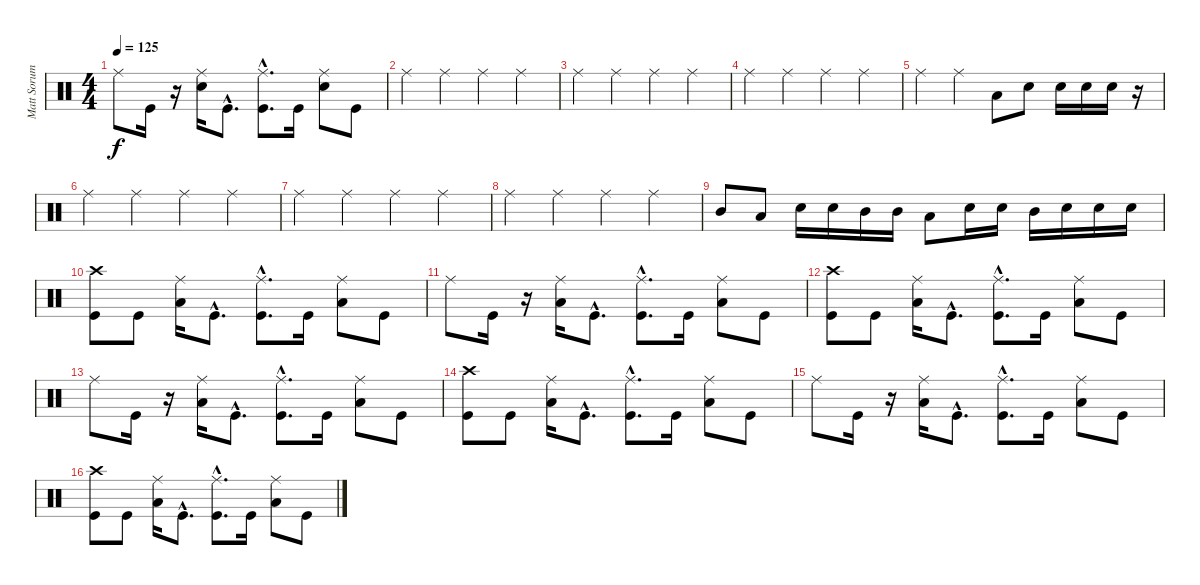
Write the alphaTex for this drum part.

\track ("Matt Sorum" "Matt Sorum") {instrument percussion}
\staff {score}
\articulation defaults
\ts (4 4)
\tempo 125
\clef neutral
\ks c "Ride (middle)".8{dy f} "Kick (hit)".16
r.16 ("Ride (middle)" "Snare (hit) 2").16 "Kick (hit)"{hac}.8{d} ("Ride (middle)" "Kick (hit)"{hac}).8{d} "Kick (hit)".16 ("Ride (middle)" "Snare (hit) 2").8 "Kick (hit)".8 |
"Ride (middle)".4 "Ride (middle)".4 "Ride (middle)".4 "Ride (middle)".4 |
"Ride (middle)".4 "Ride (middle)".4 "Ride (middle)".4 "Ride (middle)".4 |
"Ride (middle)".4 "Ride (middle)".4 "Ride (middle)".4 "Ride (middle)".4 |
"Ride (middle)".4 "Ride (middle)".4 "Low Tom (hit)".8 "Electric Snare (hit)".8 "Electric Snare (hit)".16 "Electric Snare (hit)".16 "Electric Snare (hit)".16 r.16 |
"Ride (middle)".4 "Ride (middle)".4 "Ride (middle)".4 "Ride (middle)".4 |
"Ride (middle)".4 "Ride (middle)".4 "Ride (middle)".4 "Ride (middle)".4 |
"Ride (middle)".4 "Ride (middle)".4 "Ride (middle)".4 "Ride (middle)".4 |
"Mid Tom (hit)".8 "Low Tom (hit)".8 "Electric Snare (hit)".16 "Electric Snare (hit)".16 "Mid Tom (hit)".16 "Mid Tom (hit)".16 "Low Tom (hit)".8 "Electric Snare (hit)".16 "Electric Snare (hit)".16 "Mid Tom (hit)".16 "Electric Snare (hit)".16 "Electric Snare (hit)".16 "Electric Snare (hit)".16 |
("Crash high (hit)" "Kick (hit)").8 "Kick (hit)".8 ("Low Tom (hit)" "Ride (middle)").16 "Kick (hit)"{hac}.8{d} ("Ride (middle)" "Kick (hit)"{hac}).8{d} "Kick (hit)".16 ("Low Tom (hit)" "Ride (middle)").8 "Kick (hit)".8 |
"Ride (middle)".8 "Kick (hit)".16 r.16 ("Low Tom (hit)" "Ride (middle)").16 "Kick (hit)"{hac}.8{d} ("Ride (middle)" "Kick (hit)"{hac}).8{d} "Kick (hit)".16 ("Low Tom (hit)" "Ride (middle)").8 "Kick (hit)".8 |
("Crash high (hit)" "Kick (hit)").8 "Kick (hit)".8 ("Low Tom (hit)" "Ride (middle)").16 "Kick (hit)"{hac}.8{d} ("Ride (middle)" "Kick (hit)"{hac}).8{d} "Kick (hit)".16 ("Low Tom (hit)" "Ride (middle)").8 "Kick (hit)".8 |
"Ride (middle)".8 "Kick (hit)".16 r.16 ("Low Tom (hit)" "Ride (middle)").16 "Kick (hit)"{hac}.8{d} ("Ride (middle)" "Kick (hit)"{hac}).8{d} "Kick (hit)".16 ("Low Tom (hit)" "Ride (middle)").8 "Kick (hit)".8 |
("Crash high (hit)" "Kick (hit)").8 "Kick (hit)".8 ("Low Tom (hit)" "Ride (middle)").16 "Kick (hit)"{hac}.8{d} ("Ride (middle)" "Kick (hit)"{hac}).8{d} "Kick (hit)".16 ("Low Tom (hit)" "Ride (middle)").8 "Kick (hit)".8 |
"Ride (middle)".8 "Kick (hit)".16 r.16 ("Low Tom (hit)" "Ride (middle)").16 "Kick (hit)"{hac}.8{d} ("Ride (middle)" "Kick (hit)"{hac}).8{d} "Kick (hit)".16 ("Low Tom (hit)" "Ride (middle)").8 "Kick (hit)".8 |
("Crash high (hit)" "Kick (hit)").8 "Kick (hit)".8 ("Low Tom (hit)" "Ride (middle)").16 "Kick (hit)"{hac}.8{d} ("Ride (middle)" "Kick (hit)"{hac}).8{d} "Kick (hit)".16 ("Low Tom (hit)" "Ride (middle)").8 "Kick (hit)".8
